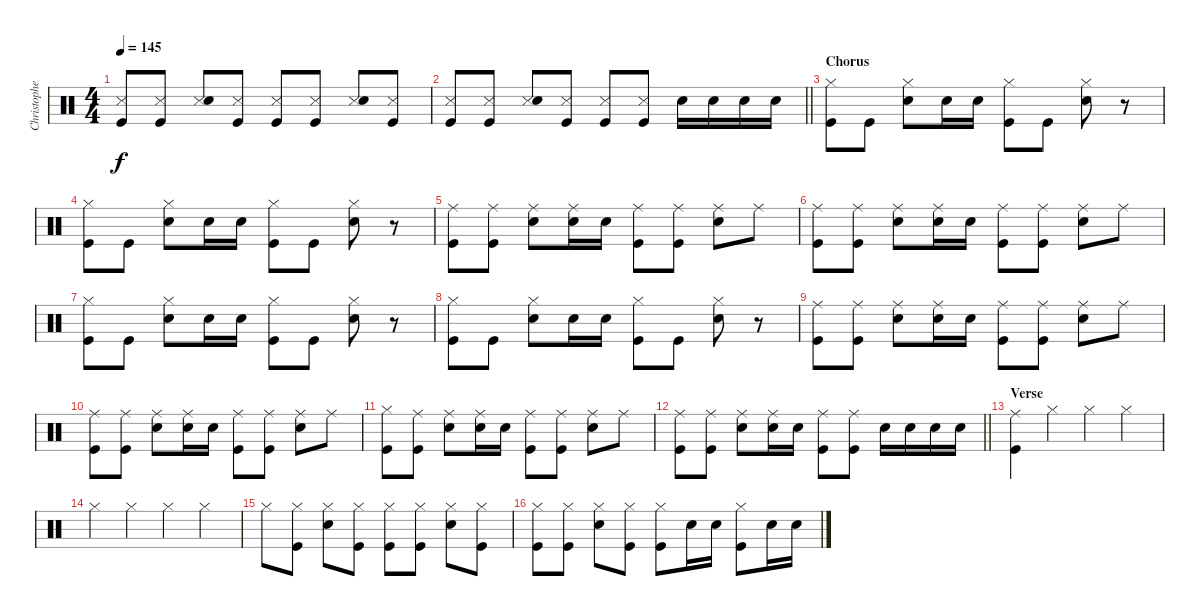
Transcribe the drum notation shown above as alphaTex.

\track ("Christopher - Drums" "Christophe") {instrument percussion}
\staff {score}
\articulation defaults
\ts (4 4)
\tempo 145
\clef neutral
\ks c
("Snare (side stick) 3" "Kick (hit)").8{dy f} ("Snare (side stick) 3" "Kick (hit)").8 ("Snare (side stick) 3" "Snare (hit) 2").8 ("Snare (side stick) 3" "Kick (hit)").8 ("Snare (side stick) 3" "Kick (hit)").8 ("Snare (side stick) 3" "Kick (hit)").8 ("Snare (side stick) 3" "Snare (hit) 2").8 ("Snare (side stick) 3" "Kick (hit)").8 |
\barLineRight lightlight
("Snare (side stick) 3" "Kick (hit)").8 ("Snare (side stick) 3" "Kick (hit)").8 ("Snare (side stick) 3" "Snare (hit) 2").8 ("Snare (side stick) 3" "Kick (hit)").8 ("Snare (side stick) 3" "Kick (hit)").8 ("Snare (side stick) 3" "Kick (hit)").8 "Snare (hit) 2".16 "Snare (hit) 2".16 "Snare (hit) 2".16 "Snare (hit) 2".16 |
\section ("" "Chorus")
("Hi-Hat (closed)" "Kick (hit)").8 "Kick (hit)".8 ("Hi-Hat (closed)" "Snare (hit) 2").8 "Snare (hit) 2".16 "Snare (hit) 2".16 ("Hi-Hat (closed)" "Kick (hit)").8 "Kick (hit)".8 ("Hi-Hat (closed)" "Snare (hit) 2").8 r.8 |
("Hi-Hat (closed)" "Kick (hit)").8 "Kick (hit)".8 ("Hi-Hat (closed)" "Snare (hit) 2").8 "Snare (hit) 2".16 "Snare (hit) 2".16 ("Hi-Hat (closed)" "Kick (hit)").8 "Kick (hit)".8 ("Hi-Hat (closed)" "Snare (hit) 2").8 r.8 |
("Ride (middle)" "Kick (hit)").8 ("Ride (middle)" "Kick (hit)").8 ("Ride (middle)" "Snare (hit) 2").8 ("Ride (middle)" "Snare (hit) 2").16 "Snare (hit) 2".16 ("Ride (middle)" "Kick (hit)").8 ("Ride (middle)" "Kick (hit)").8 ("Ride (middle)" "Snare (hit) 2").8 "Ride (middle)".8 |
("Ride (middle)" "Kick (hit)").8 ("Ride (middle)" "Kick (hit)").8 ("Ride (middle)" "Snare (hit) 2").8 ("Ride (middle)" "Snare (hit) 2").16 "Snare (hit) 2".16 ("Ride (middle)" "Kick (hit)").8 ("Ride (middle)" "Kick (hit)").8 ("Ride (middle)" "Snare (hit) 2").8 "Ride (middle)".8 |
("Hi-Hat (closed)" "Kick (hit)").8 "Kick (hit)".8 ("Hi-Hat (closed)" "Snare (hit) 2").8 "Snare (hit) 2".16 "Snare (hit) 2".16 ("Hi-Hat (closed)" "Kick (hit)").8 "Kick (hit)".8 ("Hi-Hat (closed)" "Snare (hit) 2").8 r.8 |
("Hi-Hat (closed)" "Kick (hit)").8 "Kick (hit)".8 ("Hi-Hat (closed)" "Snare (hit) 2").8 "Snare (hit) 2".16 "Snare (hit) 2".16 ("Hi-Hat (closed)" "Kick (hit)").8 "Kick (hit)".8 ("Hi-Hat (closed)" "Snare (hit) 2").8 r.8 |
("Ride (middle)" "Kick (hit)").8 ("Ride (middle)" "Kick (hit)").8 ("Ride (middle)" "Snare (hit) 2").8 ("Ride (middle)" "Snare (hit) 2").16 "Snare (hit) 2".16 ("Ride (middle)" "Kick (hit)").8 ("Ride (middle)" "Kick (hit)").8 ("Ride (middle)" "Snare (hit) 2").8 "Ride (middle)".8 |
("Ride (middle)" "Kick (hit)").8 ("Ride (middle)" "Kick (hit)").8 ("Ride (middle)" "Snare (hit) 2").8 ("Ride (middle)" "Snare (hit) 2").16 "Snare (hit) 2".16 ("Ride (middle)" "Kick (hit)").8 ("Ride (middle)" "Kick (hit)").8 ("Ride (middle)" "Snare (hit) 2").8 "Ride (middle)".8 |
("Hi-Hat (closed)" "Kick (hit)").8 ("Ride (middle)" "Kick (hit)").8 ("Ride (middle)" "Snare (hit) 2").8 ("Ride (middle)" "Snare (hit) 2").16 "Snare (hit) 2".16 ("Ride (middle)" "Kick (hit)").8 ("Ride (middle)" "Kick (hit)").8 ("Ride (middle)" "Snare (hit) 2").8 "Ride (middle)".8 |
\barLineRight lightlight
("Ride (middle)" "Kick (hit)").8 ("Ride (middle)" "Kick (hit)").8 ("Ride (middle)" "Snare (hit) 2").8 ("Ride (middle)" "Snare (hit) 2").16 "Snare (hit) 2".16 ("Ride (middle)" "Kick (hit)").8 ("Ride (middle)" "Kick (hit)").8 "Snare (hit) 2".16 "Snare (hit) 2".16 "Snare (hit) 2".16 "Snare (hit) 2".16 |
\section ("" "Verse")
("Ride (middle)" "Kick (hit)").4 "Hi-Hat (closed)".4 "Hi-Hat (closed)".4 "Hi-Hat (closed)".4 |
"Hi-Hat (closed)".4 "Hi-Hat (closed)".4 "Hi-Hat (closed)".4 "Hi-Hat (closed)".4 |
"Hi-Hat (closed)".8 ("Hi-Hat (closed)" "Kick (hit)").8 ("Hi-Hat (closed)" "Snare (hit) 2").8 ("Hi-Hat (closed)" "Kick (hit)").8 ("Hi-Hat (closed)" "Kick (hit)").8 ("Hi-Hat (closed)" "Kick (hit)").8 ("Hi-Hat (closed)" "Snare (hit) 2").8 ("Hi-Hat (closed)" "Kick (hit)").8 |
("Hi-Hat (closed)" "Kick (hit)").8 ("Hi-Hat (closed)" "Kick (hit)").8 ("Hi-Hat (closed)" "Snare (hit) 2").8 ("Hi-Hat (closed)" "Kick (hit)").8 ("Hi-Hat (closed)" "Kick (hit)").8 "Snare (hit) 2".16 "Snare (hit) 2".16 ("Hi-Hat (closed)" "Kick (hit)").8 "Snare (hit) 2".16 "Snare (hit) 2".16
